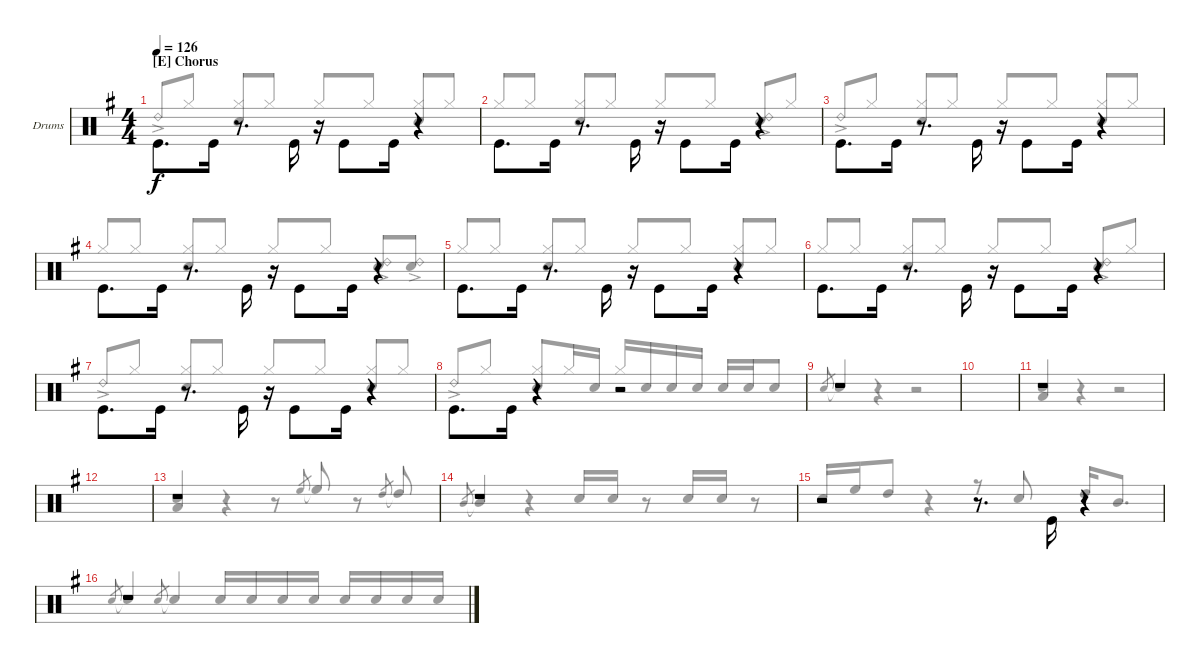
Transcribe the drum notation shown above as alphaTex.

\defaultSystemsLayout 4
\bracketExtendMode groupsimilarinstruments
\firstSystemTrackNameOrientation horizontal
\otherSystemsTrackNameOrientation horizontal
\track ("Drumkit" "Drums") {instrument percussion}
\staff {score}
\articulation defaults
\voice
\ts (4 4)
\section ("E" "Chorus")
\tempo 126
\clef neutral
\scale
1.04288
\ks g "Kick (hit)".8{d dy f beam invert} "Kick (hit)".16
r.8{d beam invert} "Kick (hit)".16{beam invert} r.16{beam invert} "Kick (hit)".8{beam invert} "Kick (hit)".16 r.4{beam invert} |
\scale
0.957125 "Kick (hit)".8{d beam invert} "Kick (hit)".16 r.8{d beam invert} "Kick (hit)".16{beam invert} r.16{beam invert} "Kick (hit)".8{beam invert} "Kick (hit)".16 r.4{beam invert} |
\scale
1.04288 "Kick (hit)".8{d beam invert} "Kick (hit)".16 r.8{d beam invert} "Kick (hit)".16{beam invert} r.16{beam invert} "Kick (hit)".8{beam invert} "Kick (hit)".16 r.4{beam invert} |
\scale
0.957125 "Kick (hit)".8{d beam invert} "Kick (hit)".16 r.8{d beam invert} "Kick (hit)".16{beam invert} r.16{beam invert} "Kick (hit)".8{beam invert} "Kick (hit)".16 r.4{beam invert} |
\scale
1.04288 "Kick (hit)".8{d beam invert} "Kick (hit)".16 r.8{d beam invert} "Kick (hit)".16{beam invert} r.16{beam invert} "Kick (hit)".8{beam invert} "Kick (hit)".16 r.4{beam invert} |
\scale
0.957125 "Kick (hit)".8{d beam invert} "Kick (hit)".16 r.8{d beam invert} "Kick (hit)".16{beam invert} r.16{beam invert} "Kick (hit)".8{beam invert} "Kick (hit)".16 r.4{beam invert} |
\scale
1.04288 "Kick (hit)".8{d beam invert} "Kick (hit)".16 r.8{d beam invert} "Kick (hit)".16{beam invert} r.16{beam invert} "Kick (hit)".8{beam invert} "Kick (hit)".16 r.4{beam invert} |
\scale
0.957125 "Kick (hit)".8{d beam invert} "Kick (hit)".16 r.4{beam invert} r.2 |
\scale
1.04288 r.1 |
\scale
0.957125 |
\scale
1.04288 r.1 |
\scale
0.957125 |
\scale
1.04288 r.1 |
\scale
0.957125 r.1 |
\scale
1.04288 r.2 r.8{d} "Kick (hit)".16{beam invert} r.4 |
\scale
0.957125 r.1
\voice
\clef neutral
\ottava regular
\simile none
\scale
1.04288
\ks g "Ride (bell) 2"{ac}.8{dy f beam invert} "Hi-Hat (closed)".8
("Hi-Hat (closed)" "Snare (hit) 2").8{beam invert} "Hi-Hat (closed)".8 "Hi-Hat (closed)".8{beam invert} "Hi-Hat (closed)".8 ("Hi-Hat (closed)" "Snare (hit) 2").8{beam invert} "Hi-Hat (closed)".8 |
\scale
0.957125 "Hi-Hat (closed)".8{beam invert} "Hi-Hat (closed)".8 ("Hi-Hat (closed)" "Snare (hit) 2").8{beam invert} "Hi-Hat (closed)".8 "Hi-Hat (closed)".8{beam invert} "Hi-Hat (closed)".8 ("Snare (hit) 2" "Ride (bell) 2"{ac}).8{beam invert} "Hi-Hat (closed)".8 |
\scale
1.04288 "Ride (bell) 2"{ac}.8{beam invert} "Hi-Hat (closed)".8 ("Hi-Hat (closed)" "Snare (hit) 2").8{beam invert} "Hi-Hat (closed)".8 "Hi-Hat (closed)".8{beam invert} "Hi-Hat (closed)".8 ("Hi-Hat (closed)" "Snare (hit) 2").8{beam invert} "Hi-Hat (closed)".8 |
\scale
0.957125 "Hi-Hat (closed)".8{beam invert} "Hi-Hat (closed)".8 ("Hi-Hat (closed)" "Snare (hit) 2").8{beam invert} "Hi-Hat (closed)".8 "Hi-Hat (closed)".8{beam invert} "Hi-Hat (closed)".8 ("Snare (hit) 2" "Ride (bell) 2"{ac}).8{beam invert} ("Snare (hit) 2" "Ride (bell) 2"{ac}).8 |
\scale
1.04288 "Hi-Hat (closed)".8{beam invert} "Hi-Hat (closed)".8 ("Hi-Hat (closed)" "Snare (hit) 2").8{beam invert} "Hi-Hat (closed)".8 "Hi-Hat (closed)".8{beam invert} "Hi-Hat (closed)".8 ("Hi-Hat (closed)" "Snare (hit) 2").8{beam invert} "Hi-Hat (closed)".8 |
\scale
0.957125 "Hi-Hat (closed)".8{beam invert} "Hi-Hat (closed)".8 ("Hi-Hat (closed)" "Snare (hit) 2").8{beam invert} "Hi-Hat (closed)".8 "Hi-Hat (closed)".8{beam invert} "Hi-Hat (closed)".8 ("Snare (hit) 2" "Ride (bell) 2"{ac}).8{beam invert} "Hi-Hat (closed)".8 |
\scale
1.04288 "Ride (bell) 2"{ac}.8{beam invert} "Hi-Hat (closed)".8 ("Hi-Hat (closed)" "Snare (hit) 2").8{beam invert} "Hi-Hat (closed)".8 "Hi-Hat (closed)".8{beam invert} "Hi-Hat (closed)".8 ("Hi-Hat (closed)" "Snare (hit) 2").8{beam invert} "Hi-Hat (closed)".8 |
\scale
0.957125 "Ride (bell) 2"{ac}.8{beam invert} "Hi-Hat (closed)".8 ("Hi-Hat (closed)" "Snare (hit) 2").8{beam invert} "Hi-Hat (closed)".16 "Snare (hit) 2".16 "Hi-Hat (closed)".16 "Snare (hit) 2".16{beam invert} "Snare (hit) 2".16 "Snare (hit) 2".16 "Snare (hit) 2".16{beam invert} "Snare (hit) 2".16 "Snare (hit) 2".8 |
\scale
1.04288 "Snare (hit) 2".8{gr beam invert} "Snare (hit) 2"{t}.4{beam invert} r.4 r.2 |
\scale
0.957125 |
\scale
1.04288 ("Low Tom (hit)" "Snare (hit) 2").4{beam invert} r.4 r.2 |
\scale
0.957125 |
\scale
1.04288 ("Low Tom (hit)" "Snare (hit) 2").4{beam invert} r.4 r.8 "High Floor Tom (hit)".8{gr beam invert} "High Floor Tom (hit)"{t}.8{beam invert} r.8 "High Tom (hit)".8{gr beam invert} "High Tom (hit)"{t}.8{beam invert} |
\scale
0.957125 "Mid Tom (hit)".8{gr beam invert} "Mid Tom (hit)"{t}.4{beam invert} r.4 "Snare (hit) 2".16{beam invert} "Snare (hit) 2".16 r.8{beam invert} "Snare (hit) 2".16{beam invert} "Snare (hit) 2".16 r.8{beam invert} |
\scale
1.04288 "Snare (hit) 2".16{beam invert} "High Floor Tom (hit)".16 "High Tom (hit)".8 r.4{beam invert} r.8{beam invert} "Snare (hit) 2".8{beam invert} "High Tom (hit)".16{beam invert} "Mid Tom (hit)".8{d} |
\scale
0.957125 "Snare (hit) 2".8{gr beam invert} "Snare (hit) 2"{t}.4{beam invert} "Snare (hit) 2".8{gr beam invert} "Snare (hit) 2"{t}.4{beam invert} "Snare (hit) 2".16{beam invert} "Snare (hit) 2".16 "Snare (hit) 2".16 "Snare (hit) 2".16 "Snare (hit) 2".16{beam invert} "Snare (hit) 2".16 "Snare (hit) 2".16 "Snare (hit) 2".16
